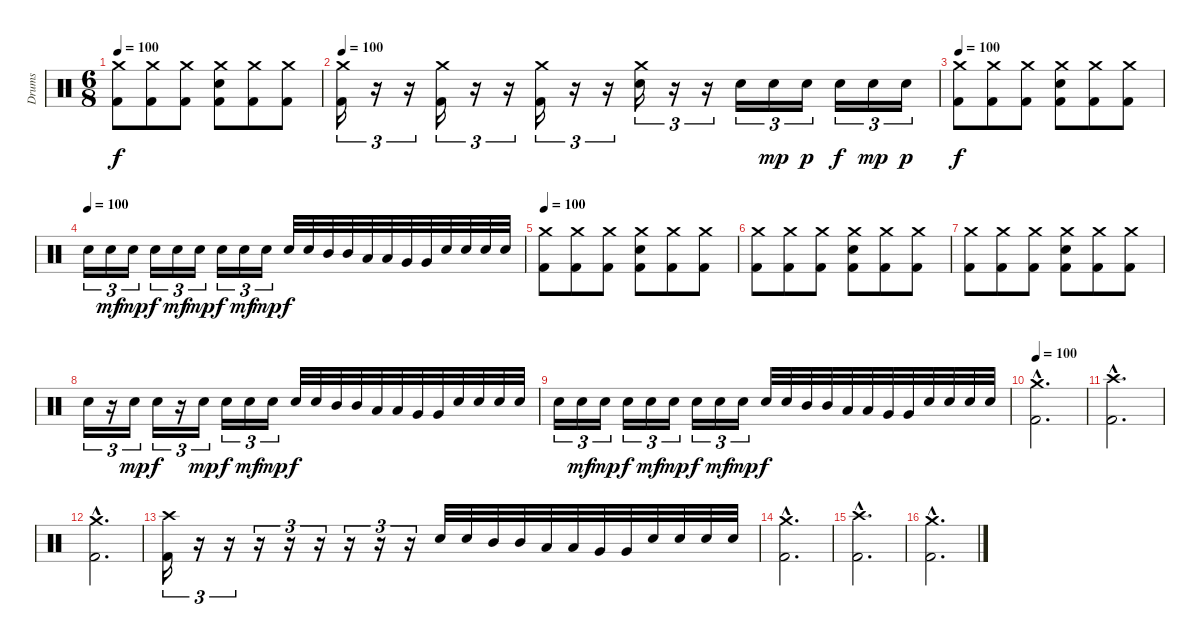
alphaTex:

\track ("Drums" "Drums") {instrument percussion}
\staff {score}
\articulation defaults
\ts (6 8)
\tempo 100
\clef neutral
\ks c
("Crash medium (hit)" "Kick (hit) 2").8{dy f} ("Crash medium (hit)" "Kick (hit) 2").8 ("Crash medium (hit)" "Kick (hit) 2").8 ("Crash medium (hit)" "Electric Snare (hit)" "Kick (hit) 2").8 ("Crash medium (hit)" "Kick (hit) 2").8 ("Crash medium (hit)" "Kick (hit) 2").8 |
\tempo 100
("Crash medium (hit)" "Kick (hit) 2").16{tu (3 2)} r.16{tu (3 2)} r.16{tu (3 2)} ("Crash medium (hit)" "Kick (hit) 2").16{tu (3 2)} r.16{tu (3 2)} r.16{tu (3 2)} ("Crash medium (hit)" "Kick (hit) 2").16{tu (3 2)} r.16{tu (3 2)} r.16{tu (3 2)} ("Crash medium (hit)" "Electric Snare (hit)").16{tu (3 2)} r.16{tu (3 2)} r.16{tu (3 2)} "Electric Snare (hit)".16{tu (3 2)} "Electric Snare (hit)".16{tu (3 2) dy mp} "Electric Snare (hit)".16{tu (3 2) dy p} "Electric Snare (hit)".16{tu (3 2) dy f} "Electric Snare (hit)".16{tu (3 2) dy mp} "Electric Snare (hit)".16{tu (3 2) dy p} |
\tempo 100
("Crash medium (hit)" "Kick (hit) 2").8{dy f} ("Crash medium (hit)" "Kick (hit) 2").8 ("Crash medium (hit)" "Kick (hit) 2").8 ("Crash medium (hit)" "Electric Snare (hit)" "Kick (hit) 2").8 ("Crash medium (hit)" "Kick (hit) 2").8 ("Crash medium (hit)" "Kick (hit) 2").8 |
\tempo (100)
"Electric Snare (hit)".16{tu (3 2)} "Electric Snare (hit)".16{tu (3 2) dy mf} "Electric Snare (hit)".16{tu (3 2) dy mp} "Electric Snare (hit)".16{tu (3 2) dy f} "Electric Snare (hit)".16{tu (3 2) dy mf} "Electric Snare (hit)".16{tu (3 2) dy mp} "Electric Snare (hit)".16{tu (3 2) dy f} "Electric Snare (hit)".16{tu (3 2) dy mf} "Electric Snare (hit)".16{tu (3 2) dy mp} "Electric Snare (hit)".32{dy f} "Electric Snare (hit)".32 "Mid Tom (hit)".32 "Mid Tom (hit)".32 "Low Tom (hit)".32 "Low Tom (hit)".32 "Very Low Tom (hit)".32 "Very Low Tom (hit)".32 "Electric Snare (hit)".32 "Electric Snare (hit)".32 "Electric Snare (hit)".32 "Electric Snare (hit)".32 |
\tempo 100
("Crash medium (hit)" "Kick (hit) 2").8 ("Crash medium (hit)" "Kick (hit) 2").8 ("Crash medium (hit)" "Kick (hit) 2").8 ("Crash medium (hit)" "Electric Snare (hit)" "Kick (hit) 2").8 ("Crash medium (hit)" "Kick (hit) 2").8 ("Crash medium (hit)" "Kick (hit) 2").8 |
("Crash medium (hit)" "Kick (hit) 2").8 ("Crash medium (hit)" "Kick (hit) 2").8 ("Crash medium (hit)" "Kick (hit) 2").8 ("Crash medium (hit)" "Electric Snare (hit)" "Kick (hit) 2").8 ("Crash medium (hit)" "Kick (hit) 2").8 ("Crash medium (hit)" "Kick (hit) 2").8 |
("Crash medium (hit)" "Kick (hit) 2").8 ("Crash medium (hit)" "Kick (hit) 2").8 ("Crash medium (hit)" "Kick (hit) 2").8 ("Crash medium (hit)" "Electric Snare (hit)" "Kick (hit) 2").8 ("Crash medium (hit)" "Kick (hit) 2").8 ("Crash medium (hit)" "Kick (hit) 2").8 |
"Electric Snare (hit)".16{tu (3 2)} r.16{tu (3 2)} "Electric Snare (hit)".16{tu (3 2) dy mp} "Electric Snare (hit)".16{tu (3 2) dy f} r.16{tu (3 2)} "Electric Snare (hit)".16{tu (3 2) dy mp} "Electric Snare (hit)".16{tu (3 2) dy f} "Electric Snare (hit)".16{tu (3 2) dy mf} "Electric Snare (hit)".16{tu (3 2) dy mp} "Electric Snare (hit)".32{dy f} "Electric Snare (hit)".32 "Mid Tom (hit)".32 "Mid Tom (hit)".32 "Low Tom (hit)".32 "Low Tom (hit)".32 "Very Low Tom (hit)".32 "Very Low Tom (hit)".32 "Electric Snare (hit)".32 "Electric Snare (hit)".32 "Electric Snare (hit)".32 "Electric Snare (hit)".32 |
"Electric Snare (hit)".16{tu (3 2)} "Electric Snare (hit)".16{tu (3 2) dy mf} "Electric Snare (hit)".16{tu (3 2) dy mp} "Electric Snare (hit)".16{tu (3 2) dy f} "Electric Snare (hit)".16{tu (3 2) dy mf} "Electric Snare (hit)".16{tu (3 2) dy mp} "Electric Snare (hit)".16{tu (3 2) dy f} "Electric Snare (hit)".16{tu (3 2) dy mf} "Electric Snare (hit)".16{tu (3 2) dy mp} "Electric Snare (hit)".32{dy f} "Electric Snare (hit)".32 "Mid Tom (hit)".32 "Mid Tom (hit)".32 "Low Tom (hit)".32 "Low Tom (hit)".32 "Very Low Tom (hit)".32 "Very Low Tom (hit)".32 "Electric Snare (hit)".32 "Electric Snare (hit)".32 "Electric Snare (hit)".32 "Electric Snare (hit)".32 |
\tempo 100
("Crash medium (hit)"{hac} "Kick (hit) 2"{hac}).2{d} |
("Crash high (hit)"{hac} "Kick (hit) 2"{hac}).2{d} |
("Crash medium (hit)"{hac} "Kick (hit) 2"{hac}).2{d} |
("Crash high (hit)" "Kick (hit) 2").16{tu (3 2)} r.16{tu (3 2)} r.16{tu (3 2)} r.16{tu (3 2)} r.16{tu (3 2)} r.16{tu (3 2)} r.16{tu (3 2)} r.16{tu (3 2)} r.16{tu (3 2)} "Electric Snare (hit)".32 "Electric Snare (hit)".32 "Mid Tom (hit)".32 "Mid Tom (hit)".32 "Low Tom (hit)".32 "Low Tom (hit)".32 "Very Low Tom (hit)".32 "Very Low Tom (hit)".32 "Electric Snare (hit)".32 "Electric Snare (hit)".32 "Electric Snare (hit)".32 "Electric Snare (hit)".32 |
("Crash medium (hit)"{hac} "Kick (hit) 2"{hac}).2{d} |
("Crash high (hit)"{hac} "Kick (hit) 2"{hac}).2{d} |
("Crash medium (hit)"{hac} "Kick (hit) 2"{hac}).2{d}
